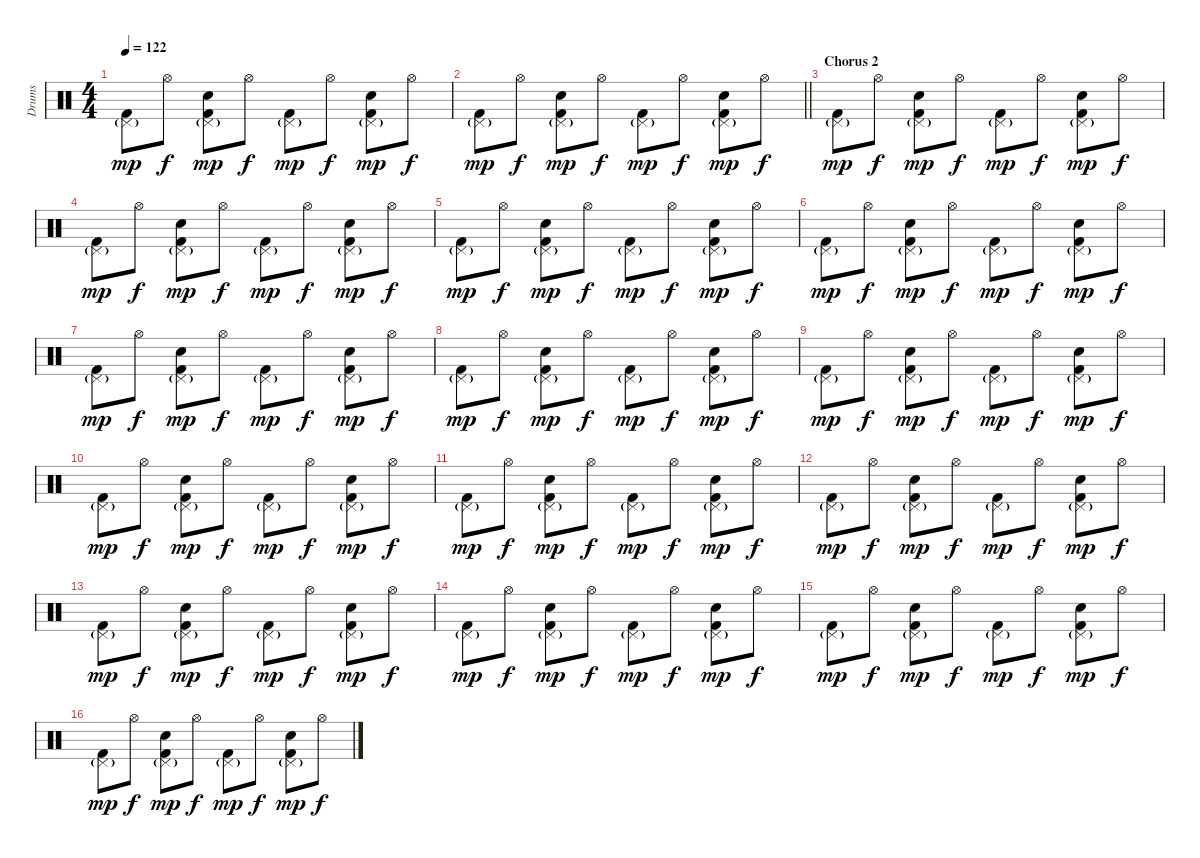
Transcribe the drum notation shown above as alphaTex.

\track ("Drums" "Drums") {instrument percussion}
\staff {score}
\articulation defaults
\ts (4 4)
\tempo 122
\clef neutral
\ks c
("Pedal Hi-Hat (hit)"{g} "Kick (hit) 2").8{dy mp} "Hi-Hat (open)".8{dy f} ("Pedal Hi-Hat (hit)"{g} "Snare (hit) 2" "Kick (hit) 2").8{dy mp} "Hi-Hat (open)".8{dy f} ("Pedal Hi-Hat (hit)"{g} "Kick (hit) 2").8{dy mp} "Hi-Hat (open)".8{dy f} ("Pedal Hi-Hat (hit)"{g} "Snare (hit) 2" "Kick (hit) 2").8{dy mp} "Hi-Hat (open)".8{dy f} |
\barLineRight lightlight
("Pedal Hi-Hat (hit)"{g} "Kick (hit) 2").8{dy mp} "Hi-Hat (open)".8{dy f} ("Pedal Hi-Hat (hit)"{g} "Snare (hit) 2" "Kick (hit) 2").8{dy mp} "Hi-Hat (open)".8{dy f} ("Pedal Hi-Hat (hit)"{g} "Kick (hit) 2").8{dy mp} "Hi-Hat (open)".8{dy f} ("Pedal Hi-Hat (hit)"{g} "Snare (hit) 2" "Kick (hit) 2").8{dy mp} "Hi-Hat (open)".8{dy f} |
\section ("" "Chorus 2")
("Pedal Hi-Hat (hit)"{g} "Kick (hit) 2").8{dy mp} "Hi-Hat (open)".8{dy f} ("Pedal Hi-Hat (hit)"{g} "Snare (hit) 2" "Kick (hit) 2").8{dy mp} "Hi-Hat (open)".8{dy f} ("Pedal Hi-Hat (hit)"{g} "Kick (hit) 2").8{dy mp} "Hi-Hat (open)".8{dy f} ("Pedal Hi-Hat (hit)"{g} "Snare (hit) 2" "Kick (hit) 2").8{dy mp} "Hi-Hat (open)".8{dy f} |
("Pedal Hi-Hat (hit)"{g} "Kick (hit) 2").8{dy mp} "Hi-Hat (open)".8{dy f} ("Pedal Hi-Hat (hit)"{g} "Snare (hit) 2" "Kick (hit) 2").8{dy mp} "Hi-Hat (open)".8{dy f} ("Pedal Hi-Hat (hit)"{g} "Kick (hit) 2").8{dy mp} "Hi-Hat (open)".8{dy f} ("Pedal Hi-Hat (hit)"{g} "Snare (hit) 2" "Kick (hit) 2").8{dy mp} "Hi-Hat (open)".8{dy f} |
("Pedal Hi-Hat (hit)"{g} "Kick (hit) 2").8{dy mp} "Hi-Hat (open)".8{dy f} ("Pedal Hi-Hat (hit)"{g} "Snare (hit) 2" "Kick (hit) 2").8{dy mp} "Hi-Hat (open)".8{dy f} ("Pedal Hi-Hat (hit)"{g} "Kick (hit) 2").8{dy mp} "Hi-Hat (open)".8{dy f} ("Pedal Hi-Hat (hit)"{g} "Snare (hit) 2" "Kick (hit) 2").8{dy mp} "Hi-Hat (open)".8{dy f} |
("Pedal Hi-Hat (hit)"{g} "Kick (hit) 2").8{dy mp} "Hi-Hat (open)".8{dy f} ("Pedal Hi-Hat (hit)"{g} "Snare (hit) 2" "Kick (hit) 2").8{dy mp} "Hi-Hat (open)".8{dy f} ("Pedal Hi-Hat (hit)"{g} "Kick (hit) 2").8{dy mp} "Hi-Hat (open)".8{dy f} ("Pedal Hi-Hat (hit)"{g} "Snare (hit) 2" "Kick (hit) 2").8{dy mp} "Hi-Hat (open)".8{dy f} |
("Pedal Hi-Hat (hit)"{g} "Kick (hit) 2").8{dy mp} "Hi-Hat (open)".8{dy f} ("Pedal Hi-Hat (hit)"{g} "Snare (hit) 2" "Kick (hit) 2").8{dy mp} "Hi-Hat (open)".8{dy f} ("Pedal Hi-Hat (hit)"{g} "Kick (hit) 2").8{dy mp} "Hi-Hat (open)".8{dy f} ("Pedal Hi-Hat (hit)"{g} "Snare (hit) 2" "Kick (hit) 2").8{dy mp} "Hi-Hat (open)".8{dy f} |
("Pedal Hi-Hat (hit)"{g} "Kick (hit) 2").8{dy mp} "Hi-Hat (open)".8{dy f} ("Pedal Hi-Hat (hit)"{g} "Snare (hit) 2" "Kick (hit) 2").8{dy mp} "Hi-Hat (open)".8{dy f} ("Pedal Hi-Hat (hit)"{g} "Kick (hit) 2").8{dy mp} "Hi-Hat (open)".8{dy f} ("Pedal Hi-Hat (hit)"{g} "Snare (hit) 2" "Kick (hit) 2").8{dy mp} "Hi-Hat (open)".8{dy f} |
("Pedal Hi-Hat (hit)"{g} "Kick (hit) 2").8{dy mp} "Hi-Hat (open)".8{dy f} ("Pedal Hi-Hat (hit)"{g} "Snare (hit) 2" "Kick (hit) 2").8{dy mp} "Hi-Hat (open)".8{dy f} ("Pedal Hi-Hat (hit)"{g} "Kick (hit) 2").8{dy mp} "Hi-Hat (open)".8{dy f} ("Pedal Hi-Hat (hit)"{g} "Snare (hit) 2" "Kick (hit) 2").8{dy mp} "Hi-Hat (open)".8{dy f} |
("Pedal Hi-Hat (hit)"{g} "Kick (hit) 2").8{dy mp} "Hi-Hat (open)".8{dy f} ("Pedal Hi-Hat (hit)"{g} "Snare (hit) 2" "Kick (hit) 2").8{dy mp} "Hi-Hat (open)".8{dy f} ("Pedal Hi-Hat (hit)"{g} "Kick (hit) 2").8{dy mp} "Hi-Hat (open)".8{dy f} ("Pedal Hi-Hat (hit)"{g} "Snare (hit) 2" "Kick (hit) 2").8{dy mp} "Hi-Hat (open)".8{dy f} |
("Pedal Hi-Hat (hit)"{g} "Kick (hit) 2").8{dy mp} "Hi-Hat (open)".8{dy f} ("Pedal Hi-Hat (hit)"{g} "Snare (hit) 2" "Kick (hit) 2").8{dy mp} "Hi-Hat (open)".8{dy f} ("Pedal Hi-Hat (hit)"{g} "Kick (hit) 2").8{dy mp} "Hi-Hat (open)".8{dy f} ("Pedal Hi-Hat (hit)"{g} "Snare (hit) 2" "Kick (hit) 2").8{dy mp} "Hi-Hat (open)".8{dy f} |
("Pedal Hi-Hat (hit)"{g} "Kick (hit) 2").8{dy mp} "Hi-Hat (open)".8{dy f} ("Pedal Hi-Hat (hit)"{g} "Snare (hit) 2" "Kick (hit) 2").8{dy mp} "Hi-Hat (open)".8{dy f} ("Pedal Hi-Hat (hit)"{g} "Kick (hit) 2").8{dy mp} "Hi-Hat (open)".8{dy f} ("Pedal Hi-Hat (hit)"{g} "Snare (hit) 2" "Kick (hit) 2").8{dy mp} "Hi-Hat (open)".8{dy f} |
("Pedal Hi-Hat (hit)"{g} "Kick (hit) 2").8{dy mp} "Hi-Hat (open)".8{dy f} ("Pedal Hi-Hat (hit)"{g} "Snare (hit) 2" "Kick (hit) 2").8{dy mp} "Hi-Hat (open)".8{dy f} ("Pedal Hi-Hat (hit)"{g} "Kick (hit) 2").8{dy mp} "Hi-Hat (open)".8{dy f} ("Pedal Hi-Hat (hit)"{g} "Snare (hit) 2" "Kick (hit) 2").8{dy mp} "Hi-Hat (open)".8{dy f} |
("Pedal Hi-Hat (hit)"{g} "Kick (hit) 2").8{dy mp} "Hi-Hat (open)".8{dy f} ("Pedal Hi-Hat (hit)"{g} "Snare (hit) 2" "Kick (hit) 2").8{dy mp} "Hi-Hat (open)".8{dy f} ("Pedal Hi-Hat (hit)"{g} "Kick (hit) 2").8{dy mp} "Hi-Hat (open)".8{dy f} ("Pedal Hi-Hat (hit)"{g} "Snare (hit) 2" "Kick (hit) 2").8{dy mp} "Hi-Hat (open)".8{dy f} |
("Pedal Hi-Hat (hit)"{g} "Kick (hit) 2").8{dy mp} "Hi-Hat (open)".8{dy f} ("Pedal Hi-Hat (hit)"{g} "Snare (hit) 2" "Kick (hit) 2").8{dy mp} "Hi-Hat (open)".8{dy f} ("Pedal Hi-Hat (hit)"{g} "Kick (hit) 2").8{dy mp} "Hi-Hat (open)".8{dy f} ("Pedal Hi-Hat (hit)"{g} "Snare (hit) 2" "Kick (hit) 2").8{dy mp} "Hi-Hat (open)".8{dy f} |
("Pedal Hi-Hat (hit)"{g} "Kick (hit) 2").8{dy mp} "Hi-Hat (open)".8{dy f} ("Pedal Hi-Hat (hit)"{g} "Snare (hit) 2" "Kick (hit) 2").8{dy mp} "Hi-Hat (open)".8{dy f} ("Pedal Hi-Hat (hit)"{g} "Kick (hit) 2").8{dy mp} "Hi-Hat (open)".8{dy f} ("Pedal Hi-Hat (hit)"{g} "Snare (hit) 2" "Kick (hit) 2").8{dy mp} "Hi-Hat (open)".8{dy f}
